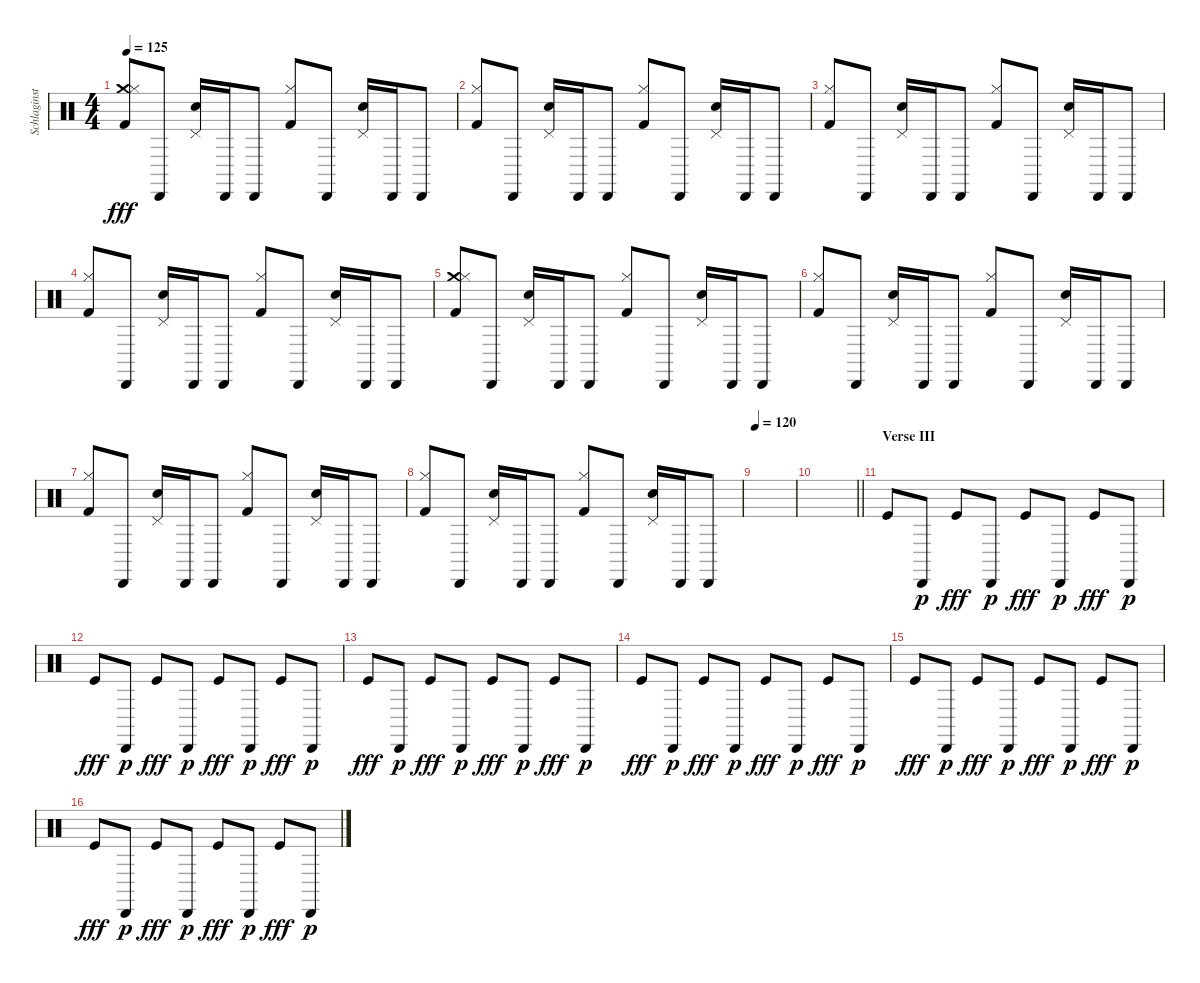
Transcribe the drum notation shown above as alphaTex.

\track ("Schlaginstrumente - Auswahl" "Schlaginst") {instrument percussion}
\staff {score}
\articulation defaults
\ts (4 4)
\tempo 125
\clef neutral
\ks c
("Crash medium (hit)" "Hi-Hat (closed)" "Kick (hit) 2").8{dy fff} "Cabasa (hit)".8 ("Pedal Hi-Hat (hit)" "Hand Clap (hit)").16 "Cabasa (hit)".16 "Cabasa (hit)".8 ("Hi-Hat (closed)" "Kick (hit) 2").8 "Cabasa (hit)".8 ("Pedal Hi-Hat (hit)" "Hand Clap (hit)").16 "Cabasa (hit)".16 "Cabasa (hit)".8 |
("Hi-Hat (closed)" "Kick (hit) 2").8 "Cabasa (hit)".8 ("Pedal Hi-Hat (hit)" "Hand Clap (hit)").16 "Cabasa (hit)".16 "Cabasa (hit)".8 ("Hi-Hat (closed)" "Kick (hit) 2").8 "Cabasa (hit)".8 ("Pedal Hi-Hat (hit)" "Hand Clap (hit)").16 "Cabasa (hit)".16 "Cabasa (hit)".8 |
("Hi-Hat (closed)" "Kick (hit) 2").8 "Cabasa (hit)".8 ("Pedal Hi-Hat (hit)" "Hand Clap (hit)").16 "Cabasa (hit)".16 "Cabasa (hit)".8 ("Hi-Hat (closed)" "Kick (hit) 2").8 "Cabasa (hit)".8 ("Pedal Hi-Hat (hit)" "Hand Clap (hit)").16 "Cabasa (hit)".16 "Cabasa (hit)".8 |
("Hi-Hat (closed)" "Kick (hit) 2").8 "Cabasa (hit)".8 ("Pedal Hi-Hat (hit)" "Hand Clap (hit)").16 "Cabasa (hit)".16 "Cabasa (hit)".8 ("Hi-Hat (closed)" "Kick (hit) 2").8 "Cabasa (hit)".8 ("Pedal Hi-Hat (hit)" "Hand Clap (hit)").16 "Cabasa (hit)".16 "Cabasa (hit)".8 |
("Crash medium (hit)" "Hi-Hat (closed)" "Kick (hit) 2").8 "Cabasa (hit)".8 ("Pedal Hi-Hat (hit)" "Hand Clap (hit)").16 "Cabasa (hit)".16 "Cabasa (hit)".8 ("Hi-Hat (closed)" "Kick (hit) 2").8 "Cabasa (hit)".8 ("Pedal Hi-Hat (hit)" "Hand Clap (hit)").16 "Cabasa (hit)".16 "Cabasa (hit)".8 |
("Hi-Hat (closed)" "Kick (hit) 2").8 "Cabasa (hit)".8 ("Pedal Hi-Hat (hit)" "Hand Clap (hit)").16 "Cabasa (hit)".16 "Cabasa (hit)".8 ("Hi-Hat (closed)" "Kick (hit) 2").8 "Cabasa (hit)".8 ("Pedal Hi-Hat (hit)" "Hand Clap (hit)").16 "Cabasa (hit)".16 "Cabasa (hit)".8 |
("Hi-Hat (closed)" "Kick (hit) 2").8 "Cabasa (hit)".8 ("Pedal Hi-Hat (hit)" "Hand Clap (hit)").16 "Cabasa (hit)".16 "Cabasa (hit)".8 ("Hi-Hat (closed)" "Kick (hit) 2").8 "Cabasa (hit)".8 ("Pedal Hi-Hat (hit)" "Hand Clap (hit)").16 "Cabasa (hit)".16 "Cabasa (hit)".8 |
("Hi-Hat (closed)" "Kick (hit) 2").8 "Cabasa (hit)".8 ("Pedal Hi-Hat (hit)" "Hand Clap (hit)").16 "Cabasa (hit)".16 "Cabasa (hit)".8 ("Hi-Hat (closed)" "Kick (hit) 2").8 "Cabasa (hit)".8 ("Pedal Hi-Hat (hit)" "Hand Clap (hit)").16 "Cabasa (hit)".16 "Cabasa (hit)".8 |
\tempo 120
|
\barLineRight lightlight
|
\section ("" "Verse III")
"Kick (hit)".8 "Cabasa (hit)".8{dy p} "Kick (hit)".8{dy fff} "Cabasa (hit)".8{dy p} "Kick (hit)".8{dy fff} "Cabasa (hit)".8{dy p} "Kick (hit)".8{dy fff} "Cabasa (hit)".8{dy p} |
"Kick (hit)".8{dy fff} "Cabasa (hit)".8{dy p} "Kick (hit)".8{dy fff} "Cabasa (hit)".8{dy p} "Kick (hit)".8{dy fff} "Cabasa (hit)".8{dy p} "Kick (hit)".8{dy fff} "Cabasa (hit)".8{dy p} |
"Kick (hit)".8{dy fff} "Cabasa (hit)".8{dy p} "Kick (hit)".8{dy fff} "Cabasa (hit)".8{dy p} "Kick (hit)".8{dy fff} "Cabasa (hit)".8{dy p} "Kick (hit)".8{dy fff} "Cabasa (hit)".8{dy p} |
"Kick (hit)".8{dy fff} "Cabasa (hit)".8{dy p} "Kick (hit)".8{dy fff} "Cabasa (hit)".8{dy p} "Kick (hit)".8{dy fff} "Cabasa (hit)".8{dy p} "Kick (hit)".8{dy fff} "Cabasa (hit)".8{dy p} |
"Kick (hit)".8{dy fff} "Cabasa (hit)".8{dy p} "Kick (hit)".8{dy fff} "Cabasa (hit)".8{dy p} "Kick (hit)".8{dy fff} "Cabasa (hit)".8{dy p} "Kick (hit)".8{dy fff} "Cabasa (hit)".8{dy p} |
"Kick (hit)".8{dy fff} "Cabasa (hit)".8{dy p} "Kick (hit)".8{dy fff} "Cabasa (hit)".8{dy p} "Kick (hit)".8{dy fff} "Cabasa (hit)".8{dy p} "Kick (hit)".8{dy fff} "Cabasa (hit)".8{dy p}
